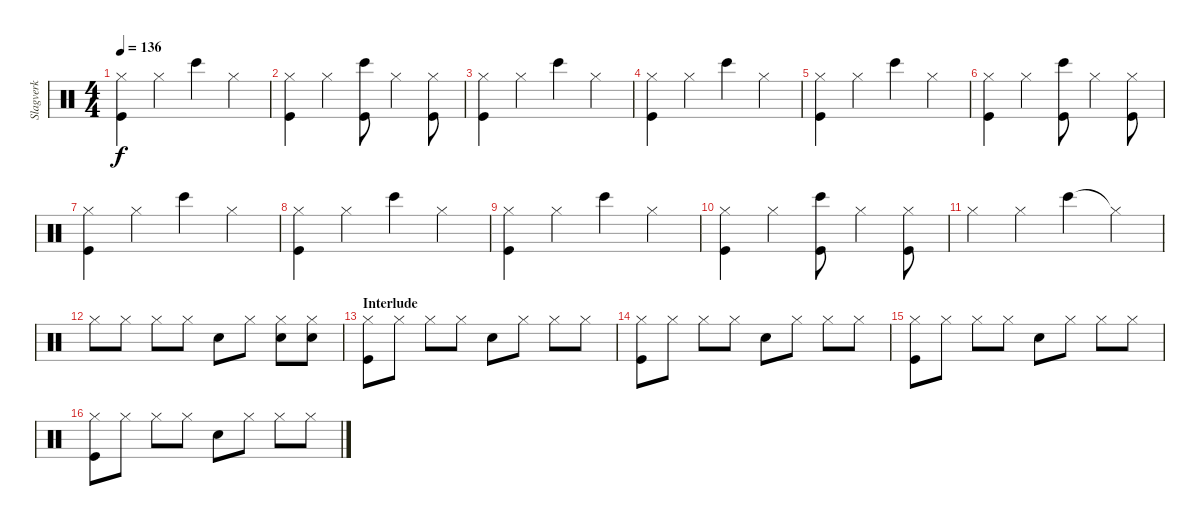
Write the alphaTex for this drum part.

\track ("Slagverk" "Slagverk") {instrument percussion}
\staff {score}
\articulation defaults
\ts (4 4)
\tempo 136
\clef neutral
\ks c
("Hi-Hat (closed)" "Kick (hit)").4{dy f} "Hi-Hat (closed)".4 "Bongo High (hit)".4 "Hi-Hat (closed)".4 |
("Hi-Hat (closed)" "Kick (hit)").4 "Hi-Hat (closed)".4 ("Bongo High (hit)" "Kick (hit)").8 "Hi-Hat (closed)".4 ("Hi-Hat (closed)" "Kick (hit)").8 |
("Hi-Hat (closed)" "Kick (hit)").4 "Hi-Hat (closed)".4 "Bongo High (hit)".4 "Hi-Hat (closed)".4 |
("Hi-Hat (closed)" "Kick (hit)").4 "Hi-Hat (closed)".4 "Bongo High (hit)".4 "Hi-Hat (closed)".4 |
("Hi-Hat (closed)" "Kick (hit)").4 "Hi-Hat (closed)".4 "Bongo High (hit)".4 "Hi-Hat (closed)".4 |
("Hi-Hat (closed)" "Kick (hit)").4 "Hi-Hat (closed)".4 ("Bongo High (hit)" "Kick (hit)").8 "Hi-Hat (closed)".4 ("Hi-Hat (closed)" "Kick (hit)").8 |
("Hi-Hat (closed)" "Kick (hit)").4 "Hi-Hat (closed)".4 "Bongo High (hit)".4 "Hi-Hat (closed)".4 |
("Hi-Hat (closed)" "Kick (hit)").4 "Hi-Hat (closed)".4 "Bongo High (hit)".4 "Hi-Hat (closed)".4 |
("Hi-Hat (closed)" "Kick (hit)").4 "Hi-Hat (closed)".4 "Bongo High (hit)".4 "Hi-Hat (closed)".4 |
("Hi-Hat (closed)" "Kick (hit)").4 "Hi-Hat (closed)".4 ("Bongo High (hit)" "Kick (hit)").8 "Hi-Hat (closed)".4 ("Hi-Hat (closed)" "Kick (hit)").8 |
"Hi-Hat (closed)".4 "Hi-Hat (closed)".4 "Bongo High (hit)".4 "Hi-Hat (closed)"{t}.4 |
"Hi-Hat (closed)".8 "Hi-Hat (closed)".8 "Hi-Hat (closed)".8 "Hi-Hat (closed)".8 "Snare (hit) 2".8 "Hi-Hat (closed)".8 ("Hi-Hat (closed)" "Snare (hit) 2").8 ("Hi-Hat (closed)" "Snare (hit) 2").8 |
\section ("" "Interlude")
("Hi-Hat (closed)" "Kick (hit)").8 "Hi-Hat (closed)".8 "Hi-Hat (closed)".8 "Hi-Hat (closed)".8 "Snare (hit) 2".8 "Hi-Hat (closed)".8 "Hi-Hat (closed)".8 "Hi-Hat (closed)".8 |
("Hi-Hat (closed)" "Kick (hit)").8 "Hi-Hat (closed)".8 "Hi-Hat (closed)".8 "Hi-Hat (closed)".8 "Snare (hit) 2".8 "Hi-Hat (closed)".8 "Hi-Hat (closed)".8 "Hi-Hat (closed)".8 |
("Hi-Hat (closed)" "Kick (hit)").8 "Hi-Hat (closed)".8 "Hi-Hat (closed)".8 "Hi-Hat (closed)".8 "Snare (hit) 2".8 "Hi-Hat (closed)".8 "Hi-Hat (closed)".8 "Hi-Hat (closed)".8 |
("Hi-Hat (closed)" "Kick (hit)").8 "Hi-Hat (closed)".8 "Hi-Hat (closed)".8 "Hi-Hat (closed)".8 "Snare (hit) 2".8 "Hi-Hat (closed)".8 "Hi-Hat (closed)".8 "Hi-Hat (closed)".8
